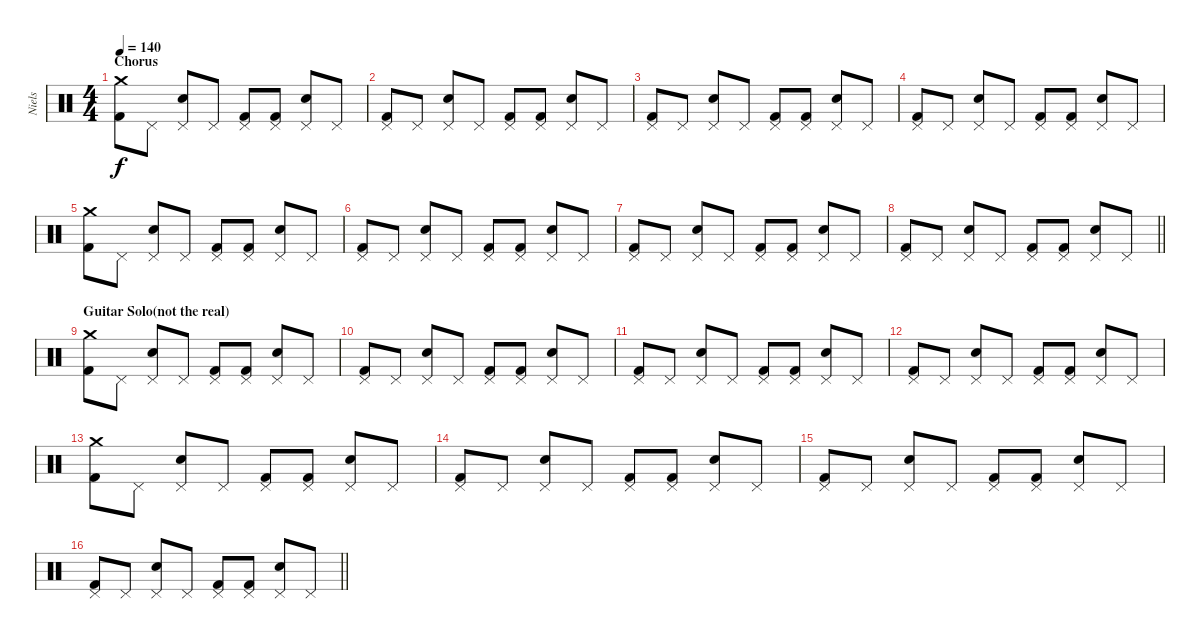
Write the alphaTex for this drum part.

\track ("Niels" "Niels") {instrument percussion}
\staff {score}
\articulation defaults
\ts (4 4)
\section ("" "Chorus")
\tempo 140
\clef neutral
\ks c
("Crash medium (hit)" "Kick (hit) 2").8{dy f} "Pedal Hi-Hat (hit)".8 ("Pedal Hi-Hat (hit)" "Snare (hit) 2").8 "Pedal Hi-Hat (hit)".8 ("Pedal Hi-Hat (hit)" "Kick (hit) 2").8 ("Pedal Hi-Hat (hit)" "Kick (hit) 2").8 ("Pedal Hi-Hat (hit)" "Snare (hit) 2").8 "Pedal Hi-Hat (hit)".8 |
("Pedal Hi-Hat (hit)" "Kick (hit) 2").8 "Pedal Hi-Hat (hit)".8 ("Pedal Hi-Hat (hit)" "Snare (hit) 2").8 "Pedal Hi-Hat (hit)".8 ("Pedal Hi-Hat (hit)" "Kick (hit) 2").8 ("Pedal Hi-Hat (hit)" "Kick (hit) 2").8 ("Pedal Hi-Hat (hit)" "Snare (hit) 2").8 "Pedal Hi-Hat (hit)".8 |
("Pedal Hi-Hat (hit)" "Kick (hit) 2").8 "Pedal Hi-Hat (hit)".8 ("Pedal Hi-Hat (hit)" "Snare (hit) 2").8 "Pedal Hi-Hat (hit)".8 ("Pedal Hi-Hat (hit)" "Kick (hit) 2").8 ("Pedal Hi-Hat (hit)" "Kick (hit) 2").8 ("Pedal Hi-Hat (hit)" "Snare (hit) 2").8 "Pedal Hi-Hat (hit)".8 |
("Pedal Hi-Hat (hit)" "Kick (hit) 2").8 "Pedal Hi-Hat (hit)".8 ("Pedal Hi-Hat (hit)" "Snare (hit) 2").8 "Pedal Hi-Hat (hit)".8 ("Pedal Hi-Hat (hit)" "Kick (hit) 2").8 ("Pedal Hi-Hat (hit)" "Kick (hit) 2").8 ("Pedal Hi-Hat (hit)" "Snare (hit) 2").8 "Pedal Hi-Hat (hit)".8 |
("Crash medium (hit)" "Kick (hit) 2").8 "Pedal Hi-Hat (hit)".8 ("Pedal Hi-Hat (hit)" "Snare (hit) 2").8 "Pedal Hi-Hat (hit)".8 ("Pedal Hi-Hat (hit)" "Kick (hit) 2").8 ("Pedal Hi-Hat (hit)" "Kick (hit) 2").8 ("Pedal Hi-Hat (hit)" "Snare (hit) 2").8 "Pedal Hi-Hat (hit)".8 |
("Pedal Hi-Hat (hit)" "Kick (hit) 2").8 "Pedal Hi-Hat (hit)".8 ("Pedal Hi-Hat (hit)" "Snare (hit) 2").8 "Pedal Hi-Hat (hit)".8 ("Pedal Hi-Hat (hit)" "Kick (hit) 2").8 ("Pedal Hi-Hat (hit)" "Kick (hit) 2").8 ("Pedal Hi-Hat (hit)" "Snare (hit) 2").8 "Pedal Hi-Hat (hit)".8 |
("Pedal Hi-Hat (hit)" "Kick (hit) 2").8 "Pedal Hi-Hat (hit)".8 ("Pedal Hi-Hat (hit)" "Snare (hit) 2").8 "Pedal Hi-Hat (hit)".8 ("Pedal Hi-Hat (hit)" "Kick (hit) 2").8 ("Pedal Hi-Hat (hit)" "Kick (hit) 2").8 ("Pedal Hi-Hat (hit)" "Snare (hit) 2").8 "Pedal Hi-Hat (hit)".8 |
\barLineRight lightlight
("Pedal Hi-Hat (hit)" "Kick (hit) 2").8 "Pedal Hi-Hat (hit)".8 ("Pedal Hi-Hat (hit)" "Snare (hit) 2").8 "Pedal Hi-Hat (hit)".8 ("Pedal Hi-Hat (hit)" "Kick (hit) 2").8 ("Pedal Hi-Hat (hit)" "Kick (hit) 2").8 ("Pedal Hi-Hat (hit)" "Snare (hit) 2").8 "Pedal Hi-Hat (hit)".8 |
\section ("" "Guitar Solo(not the real)")
("Crash medium (hit)" "Kick (hit) 2").8 "Pedal Hi-Hat (hit)".8 ("Pedal Hi-Hat (hit)" "Snare (hit) 2").8 "Pedal Hi-Hat (hit)".8 ("Pedal Hi-Hat (hit)" "Kick (hit) 2").8 ("Pedal Hi-Hat (hit)" "Kick (hit) 2").8 ("Pedal Hi-Hat (hit)" "Snare (hit) 2").8 "Pedal Hi-Hat (hit)".8 |
("Pedal Hi-Hat (hit)" "Kick (hit) 2").8 "Pedal Hi-Hat (hit)".8 ("Pedal Hi-Hat (hit)" "Snare (hit) 2").8 "Pedal Hi-Hat (hit)".8 ("Pedal Hi-Hat (hit)" "Kick (hit) 2").8 ("Pedal Hi-Hat (hit)" "Kick (hit) 2").8 ("Pedal Hi-Hat (hit)" "Snare (hit) 2").8 "Pedal Hi-Hat (hit)".8 |
("Pedal Hi-Hat (hit)" "Kick (hit) 2").8 "Pedal Hi-Hat (hit)".8 ("Pedal Hi-Hat (hit)" "Snare (hit) 2").8 "Pedal Hi-Hat (hit)".8 ("Pedal Hi-Hat (hit)" "Kick (hit) 2").8 ("Pedal Hi-Hat (hit)" "Kick (hit) 2").8 ("Pedal Hi-Hat (hit)" "Snare (hit) 2").8 "Pedal Hi-Hat (hit)".8 |
("Pedal Hi-Hat (hit)" "Kick (hit) 2").8 "Pedal Hi-Hat (hit)".8 ("Pedal Hi-Hat (hit)" "Snare (hit) 2").8 "Pedal Hi-Hat (hit)".8 ("Pedal Hi-Hat (hit)" "Kick (hit) 2").8 ("Pedal Hi-Hat (hit)" "Kick (hit) 2").8 ("Pedal Hi-Hat (hit)" "Snare (hit) 2").8 "Pedal Hi-Hat (hit)".8 |
("Crash medium (hit)" "Kick (hit) 2").8 "Pedal Hi-Hat (hit)".8 ("Pedal Hi-Hat (hit)" "Snare (hit) 2").8 "Pedal Hi-Hat (hit)".8 ("Pedal Hi-Hat (hit)" "Kick (hit) 2").8 ("Pedal Hi-Hat (hit)" "Kick (hit) 2").8 ("Pedal Hi-Hat (hit)" "Snare (hit) 2").8 "Pedal Hi-Hat (hit)".8 |
("Pedal Hi-Hat (hit)" "Kick (hit) 2").8 "Pedal Hi-Hat (hit)".8 ("Pedal Hi-Hat (hit)" "Snare (hit) 2").8 "Pedal Hi-Hat (hit)".8 ("Pedal Hi-Hat (hit)" "Kick (hit) 2").8 ("Pedal Hi-Hat (hit)" "Kick (hit) 2").8 ("Pedal Hi-Hat (hit)" "Snare (hit) 2").8 "Pedal Hi-Hat (hit)".8 |
("Pedal Hi-Hat (hit)" "Kick (hit) 2").8 "Pedal Hi-Hat (hit)".8 ("Pedal Hi-Hat (hit)" "Snare (hit) 2").8 "Pedal Hi-Hat (hit)".8 ("Pedal Hi-Hat (hit)" "Kick (hit) 2").8 ("Pedal Hi-Hat (hit)" "Kick (hit) 2").8 ("Pedal Hi-Hat (hit)" "Snare (hit) 2").8 "Pedal Hi-Hat (hit)".8 |
\barLineRight lightlight
("Pedal Hi-Hat (hit)" "Kick (hit) 2").8 "Pedal Hi-Hat (hit)".8 ("Pedal Hi-Hat (hit)" "Snare (hit) 2").8 "Pedal Hi-Hat (hit)".8 ("Pedal Hi-Hat (hit)" "Kick (hit) 2").8 ("Pedal Hi-Hat (hit)" "Kick (hit) 2").8 ("Pedal Hi-Hat (hit)" "Snare (hit) 2").8 "Pedal Hi-Hat (hit)".8
